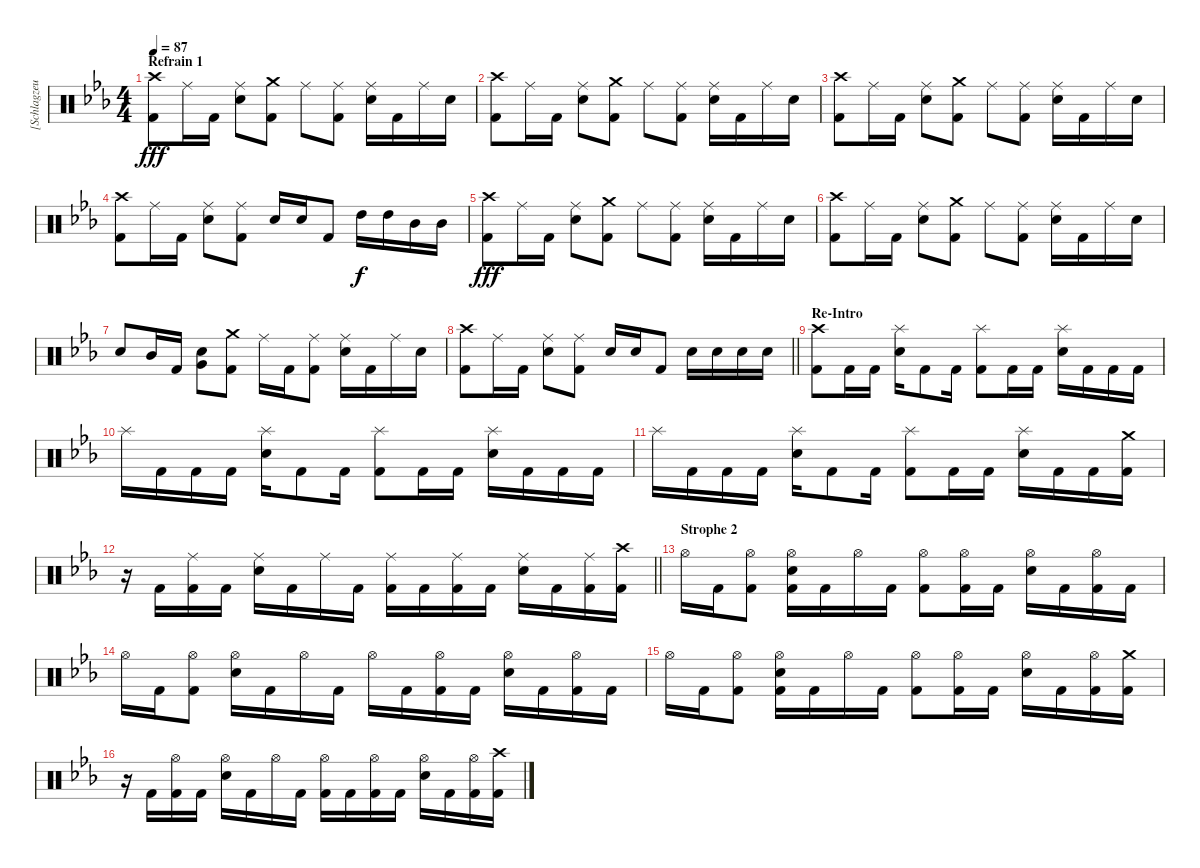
\track ("[Schlagzeug]" "[Schlagzeu") {instrument percussion}
\staff {score}
\articulation defaults
\ts (4 4)
\section ("" "Refrain 1")
\tempo 87
\clef neutral
\ks cminor
("Kick (hit) 2" "Crash high (hit)").8{dy fff} "Ride (middle)".16 "Kick (hit) 2".16 ("Electric Snare (hit)" "Ride (middle)").8 ("Crash medium (hit)" "Kick (hit) 2").8 "Ride (middle)".8 ("Kick (hit) 2" "Ride (middle)").8 ("Electric Snare (hit)" "Ride (middle)").16 "Kick (hit) 2".16 "Ride (middle)".16 "Electric Snare (hit)".16 |
("Kick (hit) 2" "Crash high (hit)").8 "Ride (middle)".16 "Kick (hit) 2".16 ("Electric Snare (hit)" "Ride (middle)").8 ("Crash medium (hit)" "Kick (hit) 2").8 "Ride (middle)".8 ("Kick (hit) 2" "Ride (middle)").8 ("Electric Snare (hit)" "Ride (middle)").16 "Kick (hit) 2".16 "Ride (middle)".16 "Electric Snare (hit)".16 |
("Kick (hit) 2" "Crash high (hit)").8 "Ride (middle)".16 "Kick (hit) 2".16 ("Electric Snare (hit)" "Ride (middle)").8 ("Crash medium (hit)" "Kick (hit) 2").8 "Ride (middle)".8 ("Kick (hit) 2" "Ride (middle)").8 ("Electric Snare (hit)" "Ride (middle)").16 "Kick (hit) 2".16 "Ride (middle)".16 "Electric Snare (hit)".16 |
("Kick (hit) 2" "Crash high (hit)").8 "Ride (middle)".16 "Kick (hit) 2".16 ("Electric Snare (hit)" "Ride (middle)").8 ("Kick (hit) 2" "Ride (middle)").8 "Electric Snare (hit)".16 "Electric Snare (hit)".16 "Kick (hit) 2".8 "High Tom (hit)".16{dy f} "High Tom (hit)".16 "Mid Tom (hit)".16 "Mid Tom (hit)".16 |
("Kick (hit) 2" "Crash high (hit)").8{dy fff} "Ride (middle)".16 "Kick (hit) 2".16 ("Electric Snare (hit)" "Ride (middle)").8 ("Crash medium (hit)" "Kick (hit) 2").8 "Ride (middle)".8 ("Kick (hit) 2" "Ride (middle)").8 ("Electric Snare (hit)" "Ride (middle)").16 "Kick (hit) 2".16 "Ride (middle)".16 "Electric Snare (hit)".16 |
("Kick (hit) 2" "Crash high (hit)").8 "Ride (middle)".16 "Kick (hit) 2".16 ("Electric Snare (hit)" "Ride (middle)").8 ("Crash medium (hit)" "Kick (hit) 2").8 "Ride (middle)".8 ("Kick (hit) 2" "Ride (middle)").8 ("Electric Snare (hit)" "Ride (middle)").16 "Kick (hit) 2".16 "Ride (middle)".16 "Electric Snare (hit)".16 |
"Electric Snare (hit)".8 "Mid Tom (hit)".16 "Kick (hit) 2".16 ("Very Low Tom (hit)" "Electric Snare (hit)").8 ("Crash medium (hit)" "Kick (hit) 2").8 "Ride (middle)".16 "Kick (hit) 2".16 ("Ride (middle)" "Kick (hit) 2").8 ("Electric Snare (hit)" "Ride (middle)").16 "Kick (hit) 2".16 "Ride (middle)".16 "Electric Snare (hit)".16 |
\barLineRight lightlight
("Kick (hit) 2" "Crash high (hit)").8 "Ride (middle)".16 "Kick (hit) 2".16 ("Ride (middle)" "Electric Snare (hit)").8 ("Ride (middle)" "Kick (hit) 2").8 "Electric Snare (hit)".16 "Electric Snare (hit)".16 "Kick (hit) 2".8 "Electric Snare (hit)".16 "Electric Snare (hit)".16 "Electric Snare (hit)".16 "Electric Snare (hit)".16 |
\section ("" "Re-Intro")
("Crash high (hit)" "Kick (hit) 2").8 "Kick (hit) 2".16 "Kick (hit) 2".16 ("Electric Snare (hit)" "Splash (hit)").16 "Kick (hit) 2".8 "Kick (hit) 2".16 ("Kick (hit) 2" "Splash (hit)").8 "Kick (hit) 2".16 "Kick (hit) 2".16 ("Electric Snare (hit)" "Splash (hit)").16 "Kick (hit) 2".16 "Kick (hit) 2".16 "Kick (hit) 2".16 |
"Splash (hit)".16 "Kick (hit) 2".16 "Kick (hit) 2".16 "Kick (hit) 2".16 ("Electric Snare (hit)" "Splash (hit)").16 "Kick (hit) 2".8 "Kick (hit) 2".16 ("Kick (hit) 2" "Splash (hit)").8 "Kick (hit) 2".16 "Kick (hit) 2".16 ("Electric Snare (hit)" "Splash (hit)").16 "Kick (hit) 2".16 "Kick (hit) 2".16 "Kick (hit) 2".16 |
"Splash (hit)".16 "Kick (hit) 2".16 "Kick (hit) 2".16 "Kick (hit) 2".16 ("Splash (hit)" "Electric Snare (hit)").16 "Kick (hit) 2".8 "Kick (hit) 2".16 ("Splash (hit)" "Kick (hit) 2").8 "Kick (hit) 2".16 "Kick (hit) 2".16 ("Splash (hit)" "Electric Snare (hit)").16 "Kick (hit) 2".16 "Kick (hit) 2".16 ("Crash medium (hit)" "Kick (hit) 2").16 |
\barLineRight lightlight
r.16 "Kick (hit) 2".16 ("Kick (hit) 2" "Ride (middle)").16 "Kick (hit) 2".16 ("Electric Snare (hit)" "Ride (middle)").16 "Kick (hit) 2".16 "Ride (middle)".16 "Kick (hit) 2".16 ("Kick (hit) 2" "Ride (middle)").16 "Kick (hit) 2".16 ("Kick (hit) 2" "Ride (middle)").16 "Kick (hit) 2".16 ("Ride (middle)" "Electric Snare (hit)").16 "Kick (hit) 2".16 ("Kick (hit) 2" "Ride (middle)").16 ("Crash high (hit)" "Kick (hit) 2").16 |
\section ("" "Strophe 2")
"Hi-Hat (open)".16 "Kick (hit) 2".16 ("Hi-Hat (open)" "Kick (hit) 2").8 ("Hi-Hat (open)" "Kick (hit) 2" "Electric Snare (hit)").16 "Kick (hit) 2".16 "Hi-Hat (open)".16 "Kick (hit) 2".16 ("Hi-Hat (open)" "Kick (hit) 2").8 ("Kick (hit) 2" "Hi-Hat (open)").16 "Kick (hit) 2".16 ("Hi-Hat (open)" "Electric Snare (hit)").16 "Kick (hit) 2".16 ("Kick (hit) 2" "Hi-Hat (open)").16 "Kick (hit) 2".16 |
"Hi-Hat (open)".16 "Kick (hit) 2".16 ("Kick (hit) 2" "Hi-Hat (open)").8 ("Electric Snare (hit)" "Hi-Hat (open)").16 "Kick (hit) 2".16 "Hi-Hat (open)".16 "Kick (hit) 2".16 "Hi-Hat (open)".16 "Kick (hit) 2".16 ("Kick (hit) 2" "Hi-Hat (open)").16 "Kick (hit) 2".16 ("Electric Snare (hit)" "Hi-Hat (open)").16 "Kick (hit) 2".16 ("Kick (hit) 2" "Hi-Hat (open)").16 "Kick (hit) 2".16 |
"Hi-Hat (open)".16 "Kick (hit) 2".16 ("Kick (hit) 2" "Hi-Hat (open)").8 ("Hi-Hat (open)" "Kick (hit) 2" "Electric Snare (hit)").16 "Kick (hit) 2".16 "Hi-Hat (open)".16 "Kick (hit) 2".16 ("Hi-Hat (open)" "Kick (hit) 2").8 ("Kick (hit) 2" "Hi-Hat (open)").16 "Kick (hit) 2".16 ("Hi-Hat (open)" "Electric Snare (hit)").16 "Kick (hit) 2".16 ("Kick (hit) 2" "Hi-Hat (open)").16 ("Crash medium (hit)" "Kick (hit) 2").16 |
r.16 "Kick (hit) 2".16 ("Kick (hit) 2" "Hi-Hat (open)").16 "Kick (hit) 2".16 ("Electric Snare (hit)" "Hi-Hat (open)").16 "Kick (hit) 2".16 "Hi-Hat (open)".16 "Kick (hit) 2".16 ("Kick (hit) 2" "Hi-Hat (open)").16 "Kick (hit) 2".16 ("Kick (hit) 2" "Hi-Hat (open)").16 "Kick (hit) 2".16 ("Electric Snare (hit)" "Hi-Hat (open)").16 "Kick (hit) 2".16 ("Kick (hit) 2" "Hi-Hat (open)").16 ("Crash high (hit)" "Kick (hit) 2").16
